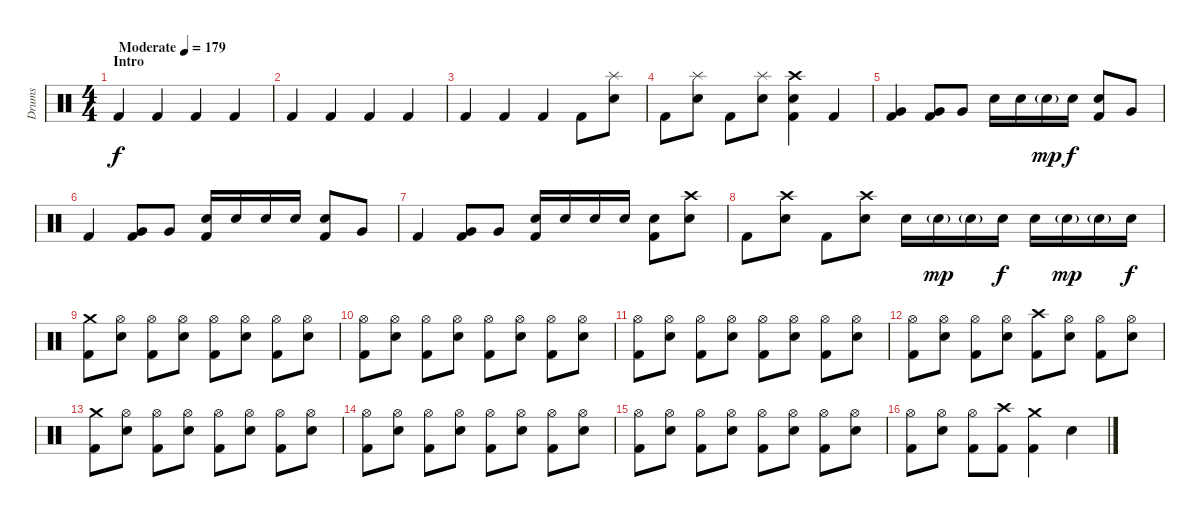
\track ("Drums" "Drums") {instrument percussion}
\staff {score}
\articulation defaults
\ts (4 4)
\section ("" "Intro")
\tempo (179 "Moderate")
\clef neutral
\ks c "Kick (hit) 2".4{dy f} "Kick (hit) 2".4 "Kick (hit) 2".4 "Kick (hit) 2".4
|
"Kick (hit) 2".4 "Kick (hit) 2".4 "Kick (hit) 2".4 "Kick (hit) 2".4 |
"Kick (hit) 2".4 "Kick (hit) 2".4 "Kick (hit) 2".4 "Kick (hit) 2".8 ("Splash (hit)" "Electric Snare (hit)").8 |
"Kick (hit) 2".8 ("Splash (hit)" "Electric Snare (hit)").8 "Kick (hit) 2".8 ("Splash (hit)" "Electric Snare (hit)").8 ("Crash high (hit)" "Electric Snare (hit)" "Kick (hit) 2").4 "Kick (hit) 2".4 |
("Very Low Tom (hit)" "Kick (hit) 2").4 ("Very Low Tom (hit)" "Kick (hit) 2").8 "Very Low Tom (hit)".8 "Electric Snare (hit)".16 "Electric Snare (hit)".16 "Electric Snare (hit)"{g}.16{dy mp} "Electric Snare (hit)".16{dy f} ("Electric Snare (hit)" "Kick (hit) 2").8 "Very Low Tom (hit)".8 |
"Kick (hit) 2".4 ("Very Low Tom (hit)" "Kick (hit) 2").8 "Very Low Tom (hit)".8 ("Electric Snare (hit)" "Kick (hit) 2").16 "Electric Snare (hit)".16 "Electric Snare (hit)".16 "Electric Snare (hit)".16 ("Electric Snare (hit)" "Kick (hit) 2").8 "Very Low Tom (hit)".8 |
"Kick (hit) 2".4 ("Very Low Tom (hit)" "Kick (hit) 2").8 "Very Low Tom (hit)".8 ("Electric Snare (hit)" "Kick (hit) 2").16 "Electric Snare (hit)".16 "Electric Snare (hit)".16 "Electric Snare (hit)".16 ("Electric Snare (hit)" "Kick (hit) 2").8 ("Crash high (hit)" "Electric Snare (hit)").8 |
"Kick (hit) 2".8 ("Crash high (hit)" "Electric Snare (hit)").8 "Kick (hit) 2".8 ("Crash high (hit)" "Electric Snare (hit)").8 "Electric Snare (hit)".16 "Electric Snare (hit)"{g}.16{dy mp} "Electric Snare (hit)"{g}.16 "Electric Snare (hit)".16{dy f} "Electric Snare (hit)".16 "Electric Snare (hit)"{g}.16{dy mp} "Electric Snare (hit)"{g}.16 "Electric Snare (hit)".16{dy f} |
("Crash medium (hit)" "Kick (hit) 2").8 ("Hi-Hat (open)" "Electric Snare (hit)").8 ("Hi-Hat (open)" "Kick (hit) 2").8 ("Hi-Hat (open)" "Electric Snare (hit)").8 ("Hi-Hat (open)" "Kick (hit) 2").8 ("Hi-Hat (open)" "Electric Snare (hit)").8 ("Hi-Hat (open)" "Kick (hit) 2").8 ("Hi-Hat (open)" "Electric Snare (hit)").8 |
("Hi-Hat (open)" "Kick (hit) 2").8 ("Hi-Hat (open)" "Electric Snare (hit)").8 ("Hi-Hat (open)" "Kick (hit) 2").8 ("Hi-Hat (open)" "Electric Snare (hit)").8 ("Hi-Hat (open)" "Kick (hit) 2").8 ("Hi-Hat (open)" "Electric Snare (hit)").8 ("Hi-Hat (open)" "Kick (hit) 2").8 ("Hi-Hat (open)" "Electric Snare (hit)").8 |
("Hi-Hat (open)" "Kick (hit) 2").8 ("Hi-Hat (open)" "Electric Snare (hit)").8 ("Hi-Hat (open)" "Kick (hit) 2").8 ("Hi-Hat (open)" "Electric Snare (hit)").8 ("Hi-Hat (open)" "Kick (hit) 2").8 ("Hi-Hat (open)" "Electric Snare (hit)").8 ("Hi-Hat (open)" "Kick (hit) 2").8 ("Hi-Hat (open)" "Electric Snare (hit)").8 |
("Hi-Hat (open)" "Kick (hit) 2").8 ("Hi-Hat (open)" "Electric Snare (hit)").8 ("Hi-Hat (open)" "Kick (hit) 2").8 ("Hi-Hat (open)" "Electric Snare (hit)").8 ("Crash high (hit)" "Kick (hit) 2").8 ("Hi-Hat (open)" "Electric Snare (hit)").8 ("Hi-Hat (open)" "Kick (hit) 2").8 ("Hi-Hat (open)" "Electric Snare (hit)").8 |
("Crash medium (hit)" "Kick (hit) 2").8 ("Hi-Hat (open)" "Electric Snare (hit)").8 ("Hi-Hat (open)" "Kick (hit) 2").8 ("Hi-Hat (open)" "Electric Snare (hit)").8 ("Hi-Hat (open)" "Kick (hit) 2").8 ("Hi-Hat (open)" "Electric Snare (hit)").8 ("Hi-Hat (open)" "Kick (hit) 2").8 ("Hi-Hat (open)" "Electric Snare (hit)").8 |
("Hi-Hat (open)" "Kick (hit) 2").8 ("Hi-Hat (open)" "Electric Snare (hit)").8 ("Hi-Hat (open)" "Kick (hit) 2").8 ("Hi-Hat (open)" "Electric Snare (hit)").8 ("Hi-Hat (open)" "Kick (hit) 2").8 ("Hi-Hat (open)" "Electric Snare (hit)").8 ("Hi-Hat (open)" "Kick (hit) 2").8 ("Hi-Hat (open)" "Electric Snare (hit)").8 |
("Hi-Hat (open)" "Kick (hit) 2").8 ("Hi-Hat (open)" "Electric Snare (hit)").8 ("Hi-Hat (open)" "Kick (hit) 2").8 ("Hi-Hat (open)" "Electric Snare (hit)").8 ("Hi-Hat (open)" "Kick (hit) 2").8 ("Hi-Hat (open)" "Electric Snare (hit)").8 ("Hi-Hat (open)" "Kick (hit) 2").8 ("Hi-Hat (open)" "Electric Snare (hit)").8 |
("Hi-Hat (open)" "Kick (hit) 2").8 ("Hi-Hat (open)" "Electric Snare (hit)").8 ("Hi-Hat (open)" "Kick (hit) 2").8 ("Crash high (hit)" "Kick (hit) 2").8 ("Crash medium (hit)" "Kick (hit) 2").4 "Electric Snare (hit)".4
